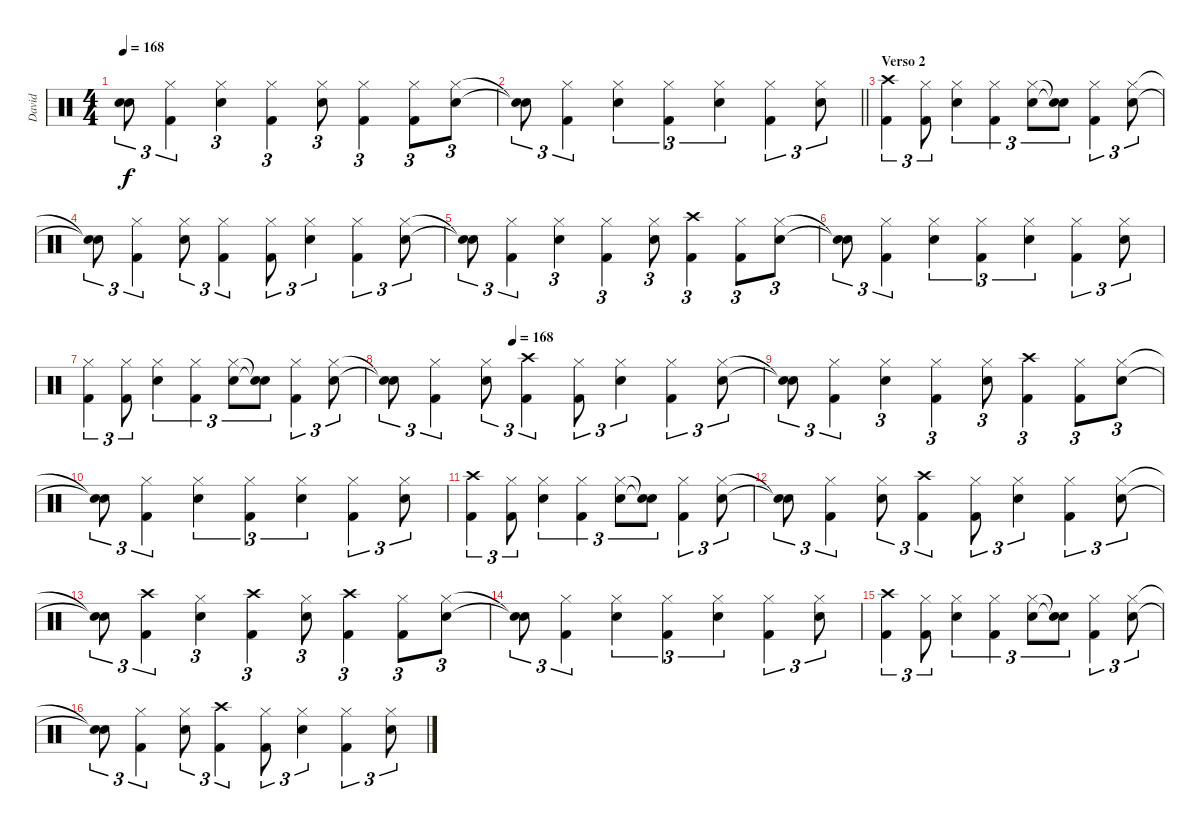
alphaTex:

\track ("David" "David") {instrument percussion}
\staff {score}
\articulation defaults
\ts (4 4)
\tempo 168
\clef neutral
\ks c
("Snare (hit)"{t} "Snare (hit)"{t}).8{tu (3 2) dy f} ("Hi-Hat (closed)" "Kick (hit) 2").4{tu (3 2)} ("Hi-Hat (closed)" "Snare (hit) 2").4{tu (3 2)} ("Hi-Hat (closed)" "Kick (hit) 2").4{tu (3 2)} ("Hi-Hat (closed)" "Snare (hit) 2").8{tu (3 2)} ("Hi-Hat (closed)" "Kick (hit) 2").4{tu (3 2)} ("Hi-Hat (closed)" "Kick (hit) 2").8{tu (3 2)} ("Hi-Hat (closed)" "Snare (hit) 2").8{tu (3 2)} |
\barLineRight lightlight
("Snare (hit)"{t} "Snare (hit)"{t}).8{tu (3 2)} ("Hi-Hat (closed)" "Kick (hit) 2").4{tu (3 2)} ("Hi-Hat (closed)" "Snare (hit) 2").4{tu (3 2)} ("Hi-Hat (closed)" "Kick (hit) 2").4{tu (3 2)} ("Hi-Hat (closed)" "Snare (hit) 2").4{tu (3 2)} ("Hi-Hat (closed)" "Kick (hit) 2").4{tu (3 2)} ("Hi-Hat (closed)" "Snare (hit) 2").8{tu (3 2)} |
\section ("" "Verso 2")
("Crash high (hit)" "Kick (hit) 2").4{tu (3 2)} ("Hi-Hat (closed)" "Kick (hit) 2").8{tu (3 2)} ("Hi-Hat (closed)" "Snare (hit) 2").4{tu (3 2)} ("Hi-Hat (closed)" "Kick (hit) 2").4{tu (3 2)} ("Hi-Hat (closed)" "Snare (hit) 2").8{tu (3 2)} ("Snare (hit)"{t} "Snare (hit)"{t}).8{tu (3 2)} ("Hi-Hat (closed)" "Kick (hit) 2").4{tu (3 2)} ("Hi-Hat (closed)" "Snare (hit) 2").8{tu (3 2)} |
("Snare (hit)"{t} "Snare (hit)"{t}).8{tu (3 2)} ("Hi-Hat (closed)" "Kick (hit) 2").4{tu (3 2)} ("Hi-Hat (closed)" "Snare (hit) 2").8{tu (3 2)} ("Hi-Hat (closed)" "Kick (hit) 2").4{tu (3 2)} ("Hi-Hat (closed)" "Kick (hit) 2").8{tu (3 2)} ("Hi-Hat (closed)" "Snare (hit) 2").4{tu (3 2)} ("Hi-Hat (closed)" "Kick (hit) 2").4{tu (3 2)} ("Hi-Hat (closed)" "Snare (hit) 2").8{tu (3 2)} |
("Snare (hit)"{t} "Snare (hit)"{t}).8{tu (3 2)} ("Hi-Hat (closed)" "Kick (hit) 2").4{tu (3 2)} ("Hi-Hat (closed)" "Snare (hit) 2").4{tu (3 2)} ("Hi-Hat (closed)" "Kick (hit) 2").4{tu (3 2)} ("Hi-Hat (closed)" "Snare (hit) 2").8{tu (3 2)} ("Crash high (hit)" "Kick (hit) 2").4{tu (3 2)} ("Hi-Hat (closed)" "Kick (hit) 2").8{tu (3 2)} ("Hi-Hat (closed)" "Snare (hit) 2").8{tu (3 2)} |
("Snare (hit)"{t} "Snare (hit)"{t}).8{tu (3 2)} ("Hi-Hat (closed)" "Kick (hit) 2").4{tu (3 2)} ("Hi-Hat (closed)" "Snare (hit) 2").4{tu (3 2)} ("Hi-Hat (closed)" "Kick (hit) 2").4{tu (3 2)} ("Hi-Hat (closed)" "Snare (hit) 2").4{tu (3 2)} ("Hi-Hat (closed)" "Kick (hit) 2").4{tu (3 2)} ("Hi-Hat (closed)" "Snare (hit) 2").8{tu (3 2)} |
("Hi-Hat (closed)" "Kick (hit) 2").4{tu (3 2)} ("Hi-Hat (closed)" "Kick (hit) 2").8{tu (3 2)} ("Hi-Hat (closed)" "Snare (hit) 2").4{tu (3 2)} ("Hi-Hat (closed)" "Kick (hit) 2").4{tu (3 2)} ("Hi-Hat (closed)" "Snare (hit) 2").8{tu (3 2)} ("Snare (hit)"{t} "Snare (hit)"{t}).8{tu (3 2)} ("Hi-Hat (closed)" "Kick (hit) 2").4{tu (3 2)} ("Hi-Hat (closed)" "Snare (hit) 2").8{tu (3 2)} |
\tempo (168 0.3333333333333333)
("Snare (hit)"{t} "Snare (hit)"{t}).8{tu (3 2)} ("Hi-Hat (closed)" "Kick (hit) 2").4{tu (3 2)} ("Hi-Hat (closed)" "Snare (hit) 2").8{tu (3 2)} ("Crash high (hit)" "Kick (hit) 2").4{tu (3 2)} ("Hi-Hat (closed)" "Kick (hit) 2").8{tu (3 2)} ("Hi-Hat (closed)" "Snare (hit) 2").4{tu (3 2)} ("Hi-Hat (closed)" "Kick (hit) 2").4{tu (3 2)} ("Hi-Hat (closed)" "Snare (hit) 2").8{tu (3 2)} |
("Snare (hit)"{t} "Snare (hit)"{t}).8{tu (3 2)} ("Hi-Hat (closed)" "Kick (hit) 2").4{tu (3 2)} ("Hi-Hat (closed)" "Snare (hit) 2").4{tu (3 2)} ("Hi-Hat (closed)" "Kick (hit) 2").4{tu (3 2)} ("Hi-Hat (closed)" "Snare (hit) 2").8{tu (3 2)} ("Crash high (hit)" "Kick (hit) 2").4{tu (3 2)} ("Hi-Hat (closed)" "Kick (hit) 2").8{tu (3 2)} ("Hi-Hat (closed)" "Snare (hit) 2").8{tu (3 2)} |
("Snare (hit)"{t} "Snare (hit)"{t}).8{tu (3 2)} ("Hi-Hat (closed)" "Kick (hit) 2").4{tu (3 2)} ("Hi-Hat (closed)" "Snare (hit) 2").4{tu (3 2)} ("Hi-Hat (closed)" "Kick (hit) 2").4{tu (3 2)} ("Hi-Hat (closed)" "Snare (hit) 2").4{tu (3 2)} ("Hi-Hat (closed)" "Kick (hit) 2").4{tu (3 2)} ("Hi-Hat (closed)" "Snare (hit) 2").8{tu (3 2)} |
("Crash high (hit)" "Kick (hit) 2").4{tu (3 2)} ("Hi-Hat (closed)" "Kick (hit) 2").8{tu (3 2)} ("Hi-Hat (closed)" "Snare (hit) 2").4{tu (3 2)} ("Hi-Hat (closed)" "Kick (hit) 2").4{tu (3 2)} ("Hi-Hat (closed)" "Snare (hit) 2").8{tu (3 2)} ("Snare (hit)"{t} "Snare (hit)"{t}).8{tu (3 2)} ("Hi-Hat (closed)" "Kick (hit) 2").4{tu (3 2)} ("Hi-Hat (closed)" "Snare (hit) 2").8{tu (3 2)} |
("Snare (hit)"{t} "Snare (hit)"{t}).8{tu (3 2)} ("Hi-Hat (closed)" "Kick (hit) 2").4{tu (3 2)} ("Hi-Hat (closed)" "Snare (hit) 2").8{tu (3 2)} ("Crash high (hit)" "Kick (hit) 2").4{tu (3 2)} ("Hi-Hat (closed)" "Kick (hit) 2").8{tu (3 2)} ("Hi-Hat (closed)" "Snare (hit) 2").4{tu (3 2)} ("Hi-Hat (closed)" "Kick (hit) 2").4{tu (3 2)} ("Hi-Hat (closed)" "Snare (hit) 2").8{tu (3 2)} |
("Snare (hit)"{t} "Snare (hit)"{t}).8{tu (3 2)} ("Crash high (hit)" "Kick (hit) 2").4{tu (3 2)} ("Hi-Hat (closed)" "Snare (hit) 2").4{tu (3 2)} ("Crash high (hit)" "Kick (hit) 2").4{tu (3 2)} ("Hi-Hat (closed)" "Snare (hit) 2").8{tu (3 2)} ("Crash high (hit)" "Kick (hit) 2").4{tu (3 2)} ("Hi-Hat (closed)" "Kick (hit) 2").8{tu (3 2)} ("Hi-Hat (closed)" "Snare (hit) 2").8{tu (3 2)} |
("Snare (hit)"{t} "Snare (hit)"{t}).8{tu (3 2)} ("Hi-Hat (closed)" "Kick (hit) 2").4{tu (3 2)} ("Hi-Hat (closed)" "Snare (hit) 2").4{tu (3 2)} ("Hi-Hat (closed)" "Kick (hit) 2").4{tu (3 2)} ("Hi-Hat (closed)" "Snare (hit) 2").4{tu (3 2)} ("Hi-Hat (closed)" "Kick (hit) 2").4{tu (3 2)} ("Hi-Hat (closed)" "Snare (hit) 2").8{tu (3 2)} |
("Crash high (hit)" "Kick (hit) 2").4{tu (3 2)} ("Hi-Hat (closed)" "Kick (hit) 2").8{tu (3 2)} ("Hi-Hat (closed)" "Snare (hit) 2").4{tu (3 2)} ("Hi-Hat (closed)" "Kick (hit) 2").4{tu (3 2)} ("Hi-Hat (closed)" "Snare (hit) 2").8{tu (3 2)} ("Snare (hit)"{t} "Snare (hit)"{t}).8{tu (3 2)} ("Hi-Hat (closed)" "Kick (hit) 2").4{tu (3 2)} ("Hi-Hat (closed)" "Snare (hit) 2").8{tu (3 2)} |
("Snare (hit)"{t} "Snare (hit)"{t}).8{tu (3 2)} ("Hi-Hat (closed)" "Kick (hit) 2").4{tu (3 2)} ("Hi-Hat (closed)" "Snare (hit) 2").8{tu (3 2)} ("Crash high (hit)" "Kick (hit) 2").4{tu (3 2)} ("Hi-Hat (closed)" "Kick (hit) 2").8{tu (3 2)} ("Hi-Hat (closed)" "Snare (hit) 2").4{tu (3 2)} ("Hi-Hat (closed)" "Kick (hit) 2").4{tu (3 2)} ("Hi-Hat (closed)" "Snare (hit) 2").8{tu (3 2)}
